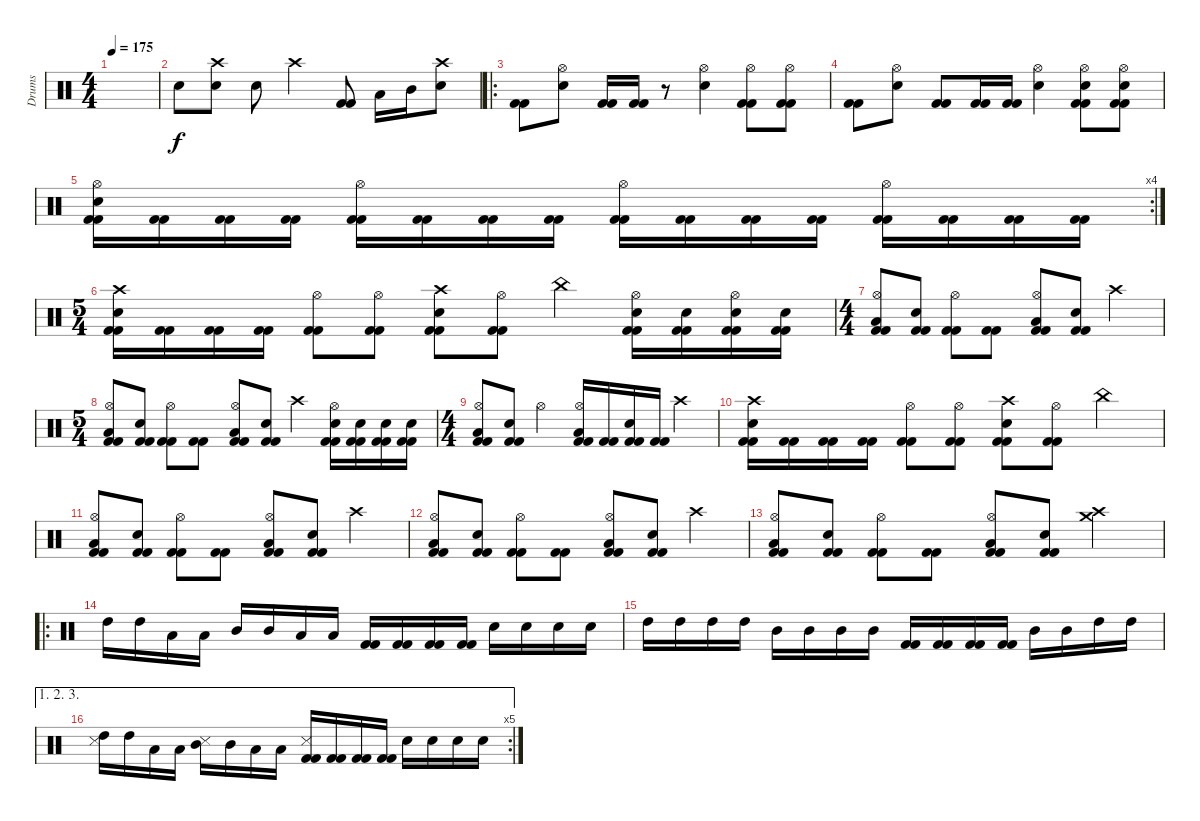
\track ("Drums " "Drums ") {instrument percussion}
\staff {score}
\articulation defaults
\ts (4 4)
\tempo 175
\clef neutral
\ks c
|
"Snare (hit)"{x}.8 ("Crash high (hit)" "Electric Snare (hit)").8{bd 480} "Snare (hit)"{x}.8 "Crash high (hit)".4 ("Kick (hit) 2" "Kick (hit) 2").8 "Low Tom (hit)".16 "Mid Tom (hit)".16 ("Crash high (hit)" "Electric Snare (hit)").8 |
\ro
("Kick (hit) 2" "Kick (hit) 2").8 ("Hi-Hat (open)" "Electric Snare (hit)").8 ("Kick (hit) 2" "Kick (hit) 2").16 ("Kick (hit) 2" "Kick (hit) 2").16 r.8 ("Hi-Hat (open)" "Electric Snare (hit)").4 ("Hi-Hat (open)" "Kick (hit) 2" "Kick (hit) 2").8 ("Hi-Hat (open)" "Kick (hit) 2" "Kick (hit) 2").8 |
("Kick (hit) 2" "Kick (hit) 2").8 ("Hi-Hat (open)" "Electric Snare (hit)").8 ("Kick (hit) 2" "Kick (hit) 2").8 ("Kick (hit) 2" "Kick (hit) 2").16 ("Kick (hit) 2" "Kick (hit) 2").16 ("Hi-Hat (open)" "Electric Snare (hit)").4 ("Hi-Hat (open)" "Electric Snare (hit)" "Kick (hit) 2" "Kick (hit) 2").8 ("Hi-Hat (open)" "Electric Snare (hit)" "Kick (hit) 2" "Kick (hit) 2").8 |
\rc 4
("Hi-Hat (open)" "Electric Snare (hit)" "Kick (hit) 2" "Kick (hit) 2").16 ("Kick (hit) 2" "Kick (hit) 2").16 ("Kick (hit) 2" "Kick (hit) 2").16 ("Kick (hit) 2" "Kick (hit) 2").16 ("Hi-Hat (open)" "Kick (hit) 2" "Kick (hit) 2").16 ("Kick (hit) 2" "Kick (hit) 2").16 ("Kick (hit) 2" "Kick (hit) 2").16 ("Kick (hit) 2" "Kick (hit) 2").16 ("Hi-Hat (open)" "Kick (hit) 2" "Kick (hit) 2").16 ("Kick (hit) 2" "Kick (hit) 2").16 ("Kick (hit) 2" "Kick (hit) 2").16 ("Kick (hit) 2" "Kick (hit) 2").16 ("Hi-Hat (open)" "Kick (hit) 2" "Kick (hit) 2").16 ("Kick (hit) 2" "Kick (hit) 2").16 ("Kick (hit) 2" "Kick (hit) 2").16 ("Kick (hit) 2" "Kick (hit) 2").16 |
\ts (5 4)
("Crash high (hit)" "Electric Snare (hit)" "Kick (hit) 2" "Kick (hit) 2").16 ("Kick (hit) 2" "Kick (hit) 2").16 ("Kick (hit) 2" "Kick (hit) 2").16 ("Kick (hit) 2" "Kick (hit) 2").16 ("Hi-Hat (open)" "Kick (hit) 2" "Kick (hit) 2").8 ("Hi-Hat (open)" "Kick (hit) 2" "Kick (hit) 2").8 ("Crash high (hit)" "Electric Snare (hit)" "Kick (hit) 2" "Kick (hit) 2").8 ("Hi-Hat (open)" "Kick (hit) 2" "Kick (hit) 2").8 "China (hit)".4 ("Hi-Hat (open)" "Electric Snare (hit)" "Kick (hit) 2" "Kick (hit) 2").16 ("Electric Snare (hit)" "Kick (hit) 2" "Kick (hit) 2").16 ("Hi-Hat (open)" "Electric Snare (hit)" "Kick (hit) 2" "Kick (hit) 2").16 ("Electric Snare (hit)" "Kick (hit) 2" "Kick (hit) 2").16 |
\ts (4 4)
("Hi-Hat (open)" "Low Floor Tom (hit)" "Kick (hit) 2" "Kick (hit) 2").8 ("Electric Snare (hit)" "Kick (hit) 2" "Kick (hit) 2").8 ("Hi-Hat (open)" "Kick (hit) 2" "Kick (hit) 2").8 ("Kick (hit) 2" "Kick (hit) 2").8 ("Hi-Hat (open)" "Low Floor Tom (hit)" "Kick (hit) 2" "Kick (hit) 2").8 ("Electric Snare (hit)" "Kick (hit) 2" "Kick (hit) 2").8 "Crash high (hit)".4 |
\ts (5 4)
("Hi-Hat (open)" "Low Floor Tom (hit)" "Kick (hit) 2" "Kick (hit) 2").8 ("Electric Snare (hit)" "Kick (hit) 2" "Kick (hit) 2").8 ("Hi-Hat (open)" "Kick (hit) 2" "Kick (hit) 2").8 ("Kick (hit) 2" "Kick (hit) 2").8 ("Hi-Hat (open)" "Low Floor Tom (hit)" "Kick (hit) 2" "Kick (hit) 2").8 ("Electric Snare (hit)" "Kick (hit) 2" "Kick (hit) 2").8 "Crash high (hit)".4 ("Hi-Hat (open)" "Electric Snare (hit)" "Kick (hit) 2" "Kick (hit) 2").16 ("Electric Snare (hit)" "Kick (hit) 2" "Kick (hit) 2").16 ("Electric Snare (hit)" "Kick (hit) 2" "Kick (hit) 2").16 ("Electric Snare (hit)" "Kick (hit) 2" "Kick (hit) 2").16 |
\ts (4 4)
("Hi-Hat (open)" "Low Floor Tom (hit)" "Kick (hit) 2" "Kick (hit) 2").8 ("Electric Snare (hit)" "Kick (hit) 2" "Kick (hit) 2").8 "Hi-Hat (open)".4 ("Hi-Hat (open)" "Low Floor Tom (hit)" "Kick (hit) 2" "Kick (hit) 2").16 ("Kick (hit) 2" "Kick (hit) 2").16 ("Electric Snare (hit)" "Kick (hit) 2" "Kick (hit) 2").16 ("Kick (hit) 2" "Kick (hit) 2").16 "Crash high (hit)".4 |
("Crash high (hit)" "Electric Snare (hit)" "Kick (hit) 2" "Kick (hit) 2").16 ("Kick (hit) 2" "Kick (hit) 2").16 ("Kick (hit) 2" "Kick (hit) 2").16 ("Kick (hit) 2" "Kick (hit) 2").16 ("Hi-Hat (open)" "Kick (hit) 2" "Kick (hit) 2").8 ("Hi-Hat (open)" "Kick (hit) 2" "Kick (hit) 2").8 ("Crash high (hit)" "Electric Snare (hit)" "Kick (hit) 2" "Kick (hit) 2").8 ("Hi-Hat (open)" "Kick (hit) 2" "Kick (hit) 2").8 "China (hit)".4 |
("Hi-Hat (open)" "Low Floor Tom (hit)" "Kick (hit) 2" "Kick (hit) 2").8 ("Electric Snare (hit)" "Kick (hit) 2" "Kick (hit) 2").8 ("Hi-Hat (open)" "Kick (hit) 2" "Kick (hit) 2").8 ("Kick (hit) 2" "Kick (hit) 2").8 ("Hi-Hat (open)" "Low Floor Tom (hit)" "Kick (hit) 2" "Kick (hit) 2").8 ("Electric Snare (hit)" "Kick (hit) 2" "Kick (hit) 2").8 "Crash high (hit)".4 |
("Hi-Hat (open)" "Low Floor Tom (hit)" "Kick (hit) 2" "Kick (hit) 2").8 ("Electric Snare (hit)" "Kick (hit) 2" "Kick (hit) 2").8 ("Hi-Hat (open)" "Kick (hit) 2" "Kick (hit) 2").8 ("Kick (hit) 2" "Kick (hit) 2").8 ("Hi-Hat (open)" "Low Floor Tom (hit)" "Kick (hit) 2" "Kick (hit) 2").8 ("Electric Snare (hit)" "Kick (hit) 2" "Kick (hit) 2").8 "Crash high (hit)".4 |
("Hi-Hat (open)" "Low Floor Tom (hit)" "Kick (hit) 2" "Kick (hit) 2").8 ("Electric Snare (hit)" "Kick (hit) 2" "Kick (hit) 2").8 ("Hi-Hat (open)" "Kick (hit) 2" "Kick (hit) 2").8 ("Kick (hit) 2" "Kick (hit) 2").8 ("Hi-Hat (open)" "Low Floor Tom (hit)" "Kick (hit) 2" "Kick (hit) 2").8 ("Electric Snare (hit)" "Kick (hit) 2" "Kick (hit) 2").8 ("Crash medium (hit)" "Crash high (hit)").4{bu 480} |
\ro "High Tom (hit)".16 "High Tom (hit)".16 "Low Tom (hit)".16 "Low Tom (hit)".16 "Mid Tom (hit)".16 "Mid Tom (hit)".16 "Low Tom (hit)".16 "Low Tom (hit)".16
("Kick (hit) 2" "Kick (hit) 2").16 ("Kick (hit) 2" "Kick (hit) 2").16 ("Kick (hit) 2" "Kick (hit) 2").16 ("Kick (hit) 2" "Kick (hit) 2").16 "Electric Snare (hit)".16 "Electric Snare (hit)".16 "Electric Snare (hit)".16 "Electric Snare (hit)".16 |
"High Tom (hit)".16 "High Tom (hit)".16 "High Tom (hit)".16 "High Tom (hit)".16 "Mid Tom (hit)".16 "Mid Tom (hit)".16 "Mid Tom (hit)".16 "Mid Tom (hit)".16 ("Kick (hit) 2" "Kick (hit) 2").16 ("Kick (hit) 2" "Kick (hit) 2").16 ("Kick (hit) 2" "Kick (hit) 2").16 ("Kick (hit) 2" "Kick (hit) 2").16 "Mid Tom (hit)".16 "Mid Tom (hit)".16 "High Tom (hit)".16 "High Tom (hit)".16 |
\ae (1 2 3)
\rc 5
("Metronome (hit)" "High Tom (hit)").16 "High Tom (hit)".16 "Low Tom (hit)".16 "Low Tom (hit)".16 ("Metronome (hit)" "Mid Tom (hit)").16 "Mid Tom (hit)".16 "Low Tom (hit)".16 "Low Tom (hit)".16 ("Metronome (hit)" "Kick (hit) 2" "Kick (hit) 2").16 ("Kick (hit) 2" "Kick (hit) 2").16 ("Kick (hit) 2" "Kick (hit) 2").16 ("Kick (hit) 2" "Kick (hit) 2").16 "Electric Snare (hit)".16 "Electric Snare (hit)".16 "Electric Snare (hit)".16 "Electric Snare (hit)".16
